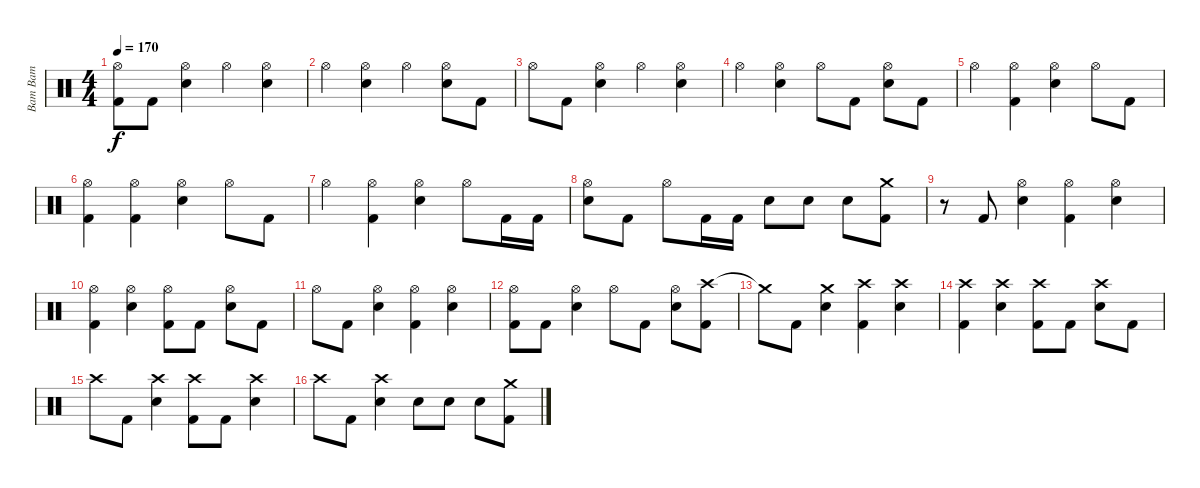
\track ("Bam Bam" "Bam Bam") {instrument percussion}
\staff {score}
\articulation defaults
\ts (4 4)
\tempo 170
\clef neutral
\ks c
("Hi-Hat (open)" "Kick (hit) 2").8{dy f} "Kick (hit) 2".8 ("Hi-Hat (open)" "Electric Snare (hit)").4 "Hi-Hat (open)".4 ("Hi-Hat (open)" "Electric Snare (hit)").4 |
"Hi-Hat (open)".4 ("Hi-Hat (open)" "Electric Snare (hit)").4 "Hi-Hat (open)".4 ("Hi-Hat (open)" "Electric Snare (hit)").8 "Kick (hit) 2".8 |
"Hi-Hat (open)".8 "Kick (hit) 2".8 ("Hi-Hat (open)" "Electric Snare (hit)").4 "Hi-Hat (open)".4 ("Hi-Hat (open)" "Electric Snare (hit)").4 |
"Hi-Hat (open)".4 ("Hi-Hat (open)" "Electric Snare (hit)").4 "Hi-Hat (open)".8 "Kick (hit) 2".8 ("Hi-Hat (open)" "Electric Snare (hit)").8 "Kick (hit) 2".8 |
"Hi-Hat (open)".4 ("Hi-Hat (open)" "Kick (hit) 2").4 ("Hi-Hat (open)" "Electric Snare (hit)").4 "Hi-Hat (open)".8 "Kick (hit) 2".8 |
("Hi-Hat (open)" "Kick (hit) 2").4 ("Hi-Hat (open)" "Kick (hit) 2").4 ("Hi-Hat (open)" "Electric Snare (hit)").4 "Hi-Hat (open)".8 "Kick (hit) 2".8 |
"Hi-Hat (open)".4 ("Hi-Hat (open)" "Kick (hit) 2").4 ("Hi-Hat (open)" "Electric Snare (hit)").4 "Hi-Hat (open)".8 "Kick (hit) 2".16 "Kick (hit) 2".16 |
("Hi-Hat (open)" "Electric Snare (hit)").8 "Kick (hit) 2".8 "Hi-Hat (open)".8 "Kick (hit) 2".16 "Kick (hit) 2".16 "Electric Snare (hit)".8 "Electric Snare (hit)".8 "Electric Snare (hit)".8 ("Crash medium (hit)" "Kick (hit) 2").8 |
r.8 "Kick (hit) 2".8 ("Hi-Hat (open)" "Electric Snare (hit)").4 ("Hi-Hat (open)" "Kick (hit) 2").4 ("Hi-Hat (open)" "Electric Snare (hit)").4 |
("Hi-Hat (open)" "Kick (hit) 2").4 ("Hi-Hat (open)" "Electric Snare (hit)").4 ("Hi-Hat (open)" "Kick (hit) 2").8 "Kick (hit) 2".8 ("Hi-Hat (open)" "Electric Snare (hit)").8 "Kick (hit) 2".8 |
"Hi-Hat (open)".8 "Kick (hit) 2".8 ("Hi-Hat (open)" "Electric Snare (hit)").4 ("Hi-Hat (open)" "Kick (hit) 2").4 ("Hi-Hat (open)" "Electric Snare (hit)").4 |
("Hi-Hat (open)" "Kick (hit) 2").8 "Kick (hit) 2".8 ("Hi-Hat (open)" "Electric Snare (hit)").4 "Hi-Hat (open)".8 "Kick (hit) 2".8 ("Hi-Hat (open)" "Electric Snare (hit)").8 ("Crash high (hit)" "Kick (hit) 2").8 |
"Crash medium (hit)"{t}.8 "Kick (hit) 2".8 ("Crash medium (hit)" "Electric Snare (hit)").4 ("Crash high (hit)" "Kick (hit) 2").4 ("Crash high (hit)" "Electric Snare (hit)").4 |
("Crash high (hit)" "Kick (hit) 2").4 ("Crash high (hit)" "Electric Snare (hit)").4 ("Crash high (hit)" "Kick (hit) 2").8 "Kick (hit) 2".8 ("Crash high (hit)" "Electric Snare (hit)").8 "Kick (hit) 2".8 |
"Crash high (hit)".8 "Kick (hit) 2".8 ("Crash high (hit)" "Electric Snare (hit)").4 ("Crash high (hit)" "Kick (hit) 2").8 "Kick (hit) 2".8 ("Crash high (hit)" "Electric Snare (hit)").4 |
"Crash high (hit)".8 "Kick (hit) 2".8 ("Crash high (hit)" "Electric Snare (hit)").4 "Electric Snare (hit)".8 "Electric Snare (hit)".8 "Electric Snare (hit)".8 ("Crash medium (hit)" "Kick (hit) 2").8
